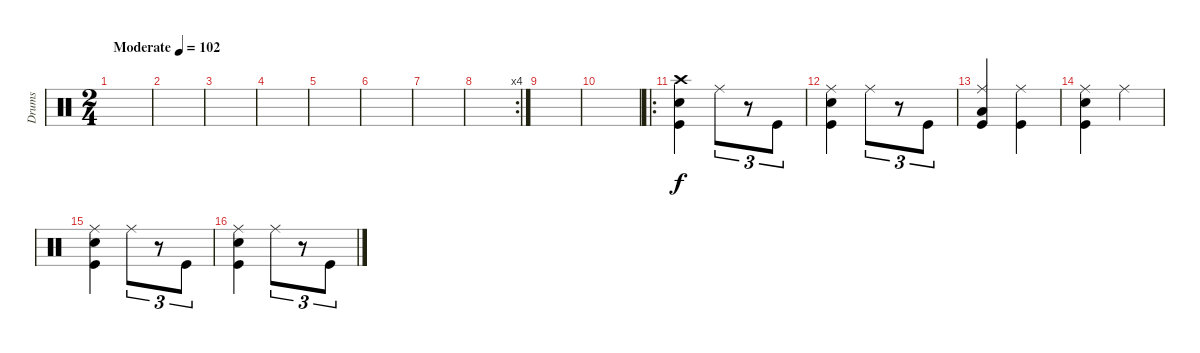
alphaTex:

\track ("Drums" "Drums") {instrument percussion}
\staff {score}
\articulation defaults
\ts (2 4)
\tempo (102 "Moderate")
\clef neutral
\ks c
|
|
|
|
|
|
|
\rc 4
|
|
|
\ro
("Crash high (hit)" "Kick (hit)" "Snare (hit) 2").4 "Ride (middle)".8{tu (3 2)} r.8{tu (3 2)} "Kick (hit)".8{tu (3 2)} |
("Ride (middle)" "Kick (hit)" "Snare (hit) 2").4 "Ride (middle)".8{tu (3 2)} r.8{tu (3 2)} "Kick (hit)".8{tu (3 2)} |
("Ride (middle)" "Kick (hit)" "Low Tom (hit)").4 ("Ride (middle)" "Kick (hit)").4 |
("Ride (middle)" "Kick (hit)" "Snare (hit) 2").4 "Ride (middle)".4 |
("Ride (middle)" "Kick (hit)" "Snare (hit) 2").4 "Ride (middle)".8{tu (3 2)} r.8{tu (3 2)} "Kick (hit)".8{tu (3 2)} |
("Ride (middle)" "Kick (hit)" "Snare (hit) 2").4 "Ride (middle)".8{tu (3 2)} r.8{tu (3 2)} "Kick (hit)".8{tu (3 2)}
